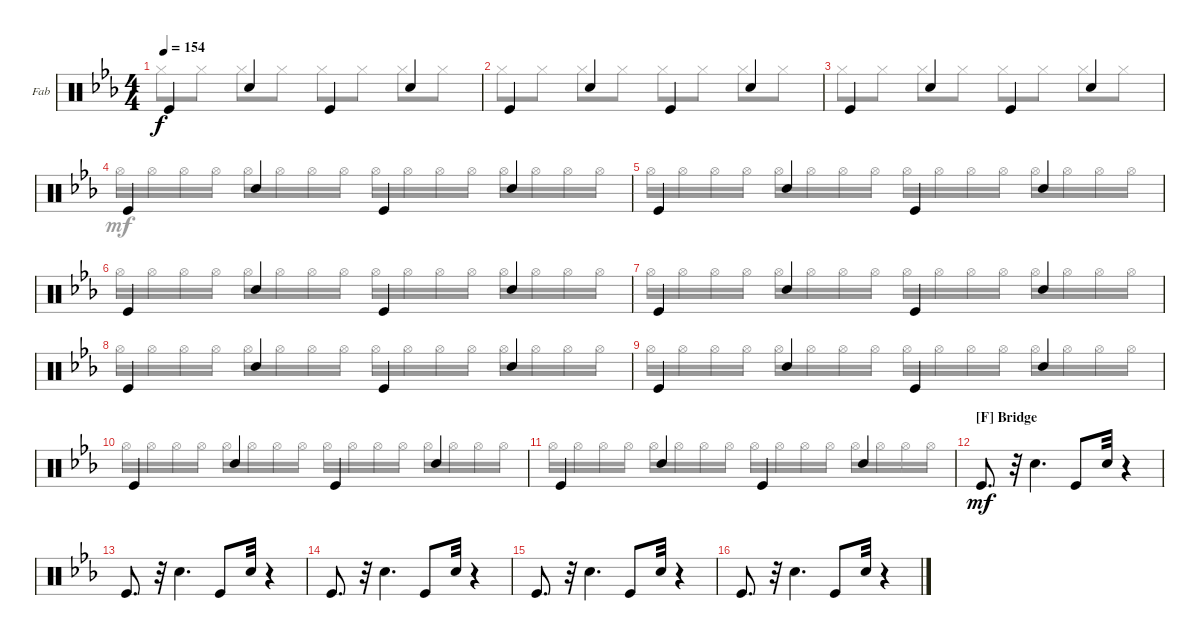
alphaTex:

\defaultSystemsLayout 4
\bracketExtendMode groupsimilarinstruments
\firstSystemTrackNameOrientation horizontal
\otherSystemsTrackNameOrientation horizontal
\track ("Drums" "Fab") {instrument percussion}
\staff {score}
\articulation defaults
\voice
\ts (4 4)
\tempo 154
\clef neutral
\scale
0.433347
\ks eb "Kick (hit)".4{dy f} "Snare (hit) 2".4 "Kick (hit)".4 "Snare (hit) 2".4
|
\scale
0.565239 "Kick (hit)".4 "Snare (hit) 2".4 "Kick (hit)".4 "Snare (hit) 2".4 |
\scale
0.434772 "Kick (hit)".4 "Snare (hit) 2".4 "Kick (hit)".4 "Snare (hit) 2".4 |
\scale
0.563897 "Kick (hit)".4 "Snare (hit) 2".4 "Kick (hit)".4 "Snare (hit) 2".4 |
\scale
0.436144 "Kick (hit)".4 "Snare (hit) 2".4 "Kick (hit)".4 "Snare (hit) 2".4 |
\scale
0.563897 "Kick (hit)".4 "Snare (hit) 2".4 "Kick (hit)".4 "Snare (hit) 2".4 |
\scale
0.436144 "Kick (hit)".4 "Snare (hit) 2".4 "Kick (hit)".4 "Snare (hit) 2".4 |
\scale
0.563897 "Kick (hit)".4 "Snare (hit) 2".4 "Kick (hit)".4 "Snare (hit) 2".4 |
\scale
0.436144 "Kick (hit)".4 "Snare (hit) 2".4 "Kick (hit)".4 "Snare (hit) 2".4 |
\scale
0.565324 "Kick (hit)".4 "Snare (hit) 2".4 "Kick (hit)".4 "Snare (hit) 2".4 |
\scale
0.434719 "Kick (hit)".4 "Snare (hit) 2".4 "Kick (hit)".4 "Snare (hit) 2".4 |
\section ("F" "Bridge")
"Kick (hit)".8{d dy mf} r.32 "Snare (hit) 2".4{d} "Kick (hit)".8 "Snare (hit) 2".32 r.4 |
"Kick (hit)".8{d} r.32 "Snare (hit) 2".4{d} "Kick (hit)".8 "Snare (hit) 2".32 r.4 |
"Kick (hit)".8{d} r.32 "Snare (hit) 2".4{d} "Kick (hit)".8 "Snare (hit) 2".32 r.4 |
"Kick (hit)".8{d} r.32 "Snare (hit) 2".4{d} "Kick (hit)".8 "Snare (hit) 2".32 r.4 |
"Kick (hit)".8{d} r.32 "Snare (hit) 2".4{d} "Kick (hit)".8 "Snare (hit) 2".32 r.4
\voice
\clef neutral
\ottava regular
\simile none
\scale
0.433347
\ks eb "Hi-Hat (closed)".8{dy f} "Hi-Hat (closed)".8 "Hi-Hat (closed)".8 "Hi-Hat (closed)".8 "Hi-Hat (closed)".8 "Hi-Hat (closed)".8 "Hi-Hat (closed)".8 "Hi-Hat (closed)".8
|
\scale
0.565239 "Hi-Hat (closed)".8 "Hi-Hat (closed)".8 "Hi-Hat (closed)".8 "Hi-Hat (closed)".8 "Hi-Hat (closed)".8 "Hi-Hat (closed)".8 "Hi-Hat (closed)".8 "Hi-Hat (closed)".8 |
\scale
0.434772 "Hi-Hat (closed)".8 "Hi-Hat (closed)".8 "Hi-Hat (closed)".8 "Hi-Hat (closed)".8 "Hi-Hat (closed)".8 "Hi-Hat (closed)".8 "Hi-Hat (closed)".8 "Hi-Hat (closed)".8 |
\scale
0.563897 "Hi-Hat (open)".16{dy mf} "Hi-Hat (open)".16 "Hi-Hat (open)".16 "Hi-Hat (open)".16 "Hi-Hat (open)".16 "Hi-Hat (open)".16 "Hi-Hat (open)".16 "Hi-Hat (open)".16 "Hi-Hat (open)".16 "Hi-Hat (open)".16 "Hi-Hat (open)".16 "Hi-Hat (open)".16 "Hi-Hat (open)".16 "Hi-Hat (open)".16 "Hi-Hat (open)".16 "Hi-Hat (open)".16 |
\scale
0.436144 "Hi-Hat (open)".16 "Hi-Hat (open)".16 "Hi-Hat (open)".16 "Hi-Hat (open)".16 "Hi-Hat (open)".16 "Hi-Hat (open)".16 "Hi-Hat (open)".16 "Hi-Hat (open)".16 "Hi-Hat (open)".16 "Hi-Hat (open)".16 "Hi-Hat (open)".16 "Hi-Hat (open)".16 "Hi-Hat (open)".16 "Hi-Hat (open)".16 "Hi-Hat (open)".16 "Hi-Hat (open)".16 |
\scale
0.563897 "Hi-Hat (open)".16 "Hi-Hat (open)".16 "Hi-Hat (open)".16 "Hi-Hat (open)".16 "Hi-Hat (open)".16 "Hi-Hat (open)".16 "Hi-Hat (open)".16 "Hi-Hat (open)".16 "Hi-Hat (open)".16 "Hi-Hat (open)".16 "Hi-Hat (open)".16 "Hi-Hat (open)".16 "Hi-Hat (open)".16 "Hi-Hat (open)".16 "Hi-Hat (open)".16 "Hi-Hat (open)".16 |
\scale
0.436144 "Hi-Hat (open)".16 "Hi-Hat (open)".16 "Hi-Hat (open)".16 "Hi-Hat (open)".16 "Hi-Hat (open)".16 "Hi-Hat (open)".16 "Hi-Hat (open)".16 "Hi-Hat (open)".16 "Hi-Hat (open)".16 "Hi-Hat (open)".16 "Hi-Hat (open)".16 "Hi-Hat (open)".16 "Hi-Hat (open)".16 "Hi-Hat (open)".16 "Hi-Hat (open)".16 "Hi-Hat (open)".16 |
\scale
0.563897 "Hi-Hat (open)".16 "Hi-Hat (open)".16 "Hi-Hat (open)".16 "Hi-Hat (open)".16 "Hi-Hat (open)".16 "Hi-Hat (open)".16 "Hi-Hat (open)".16 "Hi-Hat (open)".16 "Hi-Hat (open)".16 "Hi-Hat (open)".16 "Hi-Hat (open)".16 "Hi-Hat (open)".16 "Hi-Hat (open)".16 "Hi-Hat (open)".16 "Hi-Hat (open)".16 "Hi-Hat (open)".16 |
\scale
0.436144 "Hi-Hat (open)".16 "Hi-Hat (open)".16 "Hi-Hat (open)".16 "Hi-Hat (open)".16 "Hi-Hat (open)".16 "Hi-Hat (open)".16 "Hi-Hat (open)".16 "Hi-Hat (open)".16 "Hi-Hat (open)".16 "Hi-Hat (open)".16 "Hi-Hat (open)".16 "Hi-Hat (open)".16 "Hi-Hat (open)".16 "Hi-Hat (open)".16 "Hi-Hat (open)".16 "Hi-Hat (open)".16 |
\scale
0.565324 "Hi-Hat (open)".16 "Hi-Hat (open)".16 "Hi-Hat (open)".16 "Hi-Hat (open)".16 "Hi-Hat (open)".16 "Hi-Hat (open)".16 "Hi-Hat (open)".16 "Hi-Hat (open)".16 "Hi-Hat (open)".16 "Hi-Hat (open)".16 "Hi-Hat (open)".16 "Hi-Hat (open)".16 "Hi-Hat (open)".16 "Hi-Hat (open)".16 "Hi-Hat (open)".16 "Hi-Hat (open)".16 |
\scale
0.434719 "Hi-Hat (open)".16 "Hi-Hat (open)".16 "Hi-Hat (open)".16 "Hi-Hat (open)".16 "Hi-Hat (open)".16 "Hi-Hat (open)".16 "Hi-Hat (open)".16 "Hi-Hat (open)".16 "Hi-Hat (open)".16 "Hi-Hat (open)".16 "Hi-Hat (open)".16 "Hi-Hat (open)".16 "Hi-Hat (open)".16 "Hi-Hat (open)".16 "Hi-Hat (open)".16 "Hi-Hat (open)".16 |
|
|
|
|
